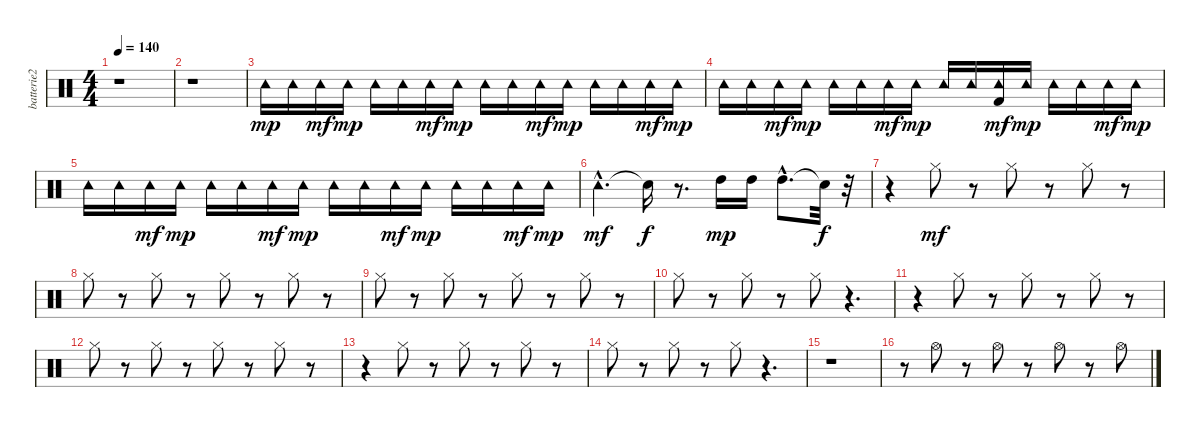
\track ("batterie2" "batterie2") {instrument percussion}
\staff {score}
\articulation defaults
\ts (4 4)
\tempo 140
\clef neutral
\ks c
r.1{dy mf} |
r.1 |
"Tambourine (hit)".16{dy mp} "Tambourine (hit)".16 "Tambourine (hit)".16{dy mf} "Tambourine (hit)".16{dy mp} "Tambourine (hit)".16 "Tambourine (hit)".16 "Tambourine (hit)".16{dy mf} "Tambourine (hit)".16{dy mp} "Tambourine (hit)".16 "Tambourine (hit)".16 "Tambourine (hit)".16{dy mf} "Tambourine (hit)".16{dy mp} "Tambourine (hit)".16 "Tambourine (hit)".16 "Tambourine (hit)".16{dy mf} "Tambourine (hit)".16{dy mp} |
"Tambourine (hit)".16 "Tambourine (hit)".16 "Tambourine (hit)".16{dy mf} "Tambourine (hit)".16{dy mp} "Tambourine (hit)".16 "Tambourine (hit)".16 "Tambourine (hit)".16{dy mf} "Tambourine (hit)".16{dy mp} "Tambourine (hit)".16 "Tambourine (hit)".16 ("Kick (hit) 2" "Tambourine (hit)").16{dy mf} "Tambourine (hit)".16{dy mp} "Tambourine (hit)".16 "Tambourine (hit)".16 "Tambourine (hit)".16{dy mf} "Tambourine (hit)".16{dy mp} |
"Tambourine (hit)".16 "Tambourine (hit)".16 "Tambourine (hit)".16{dy mf} "Tambourine (hit)".16{dy mp} "Tambourine (hit)".16 "Tambourine (hit)".16 "Tambourine (hit)".16{dy mf} "Tambourine (hit)".16{dy mp} "Tambourine (hit)".16 "Tambourine (hit)".16 "Tambourine (hit)".16{dy mf} "Tambourine (hit)".16{dy mp} "Tambourine (hit)".16 "Tambourine (hit)".16 "Tambourine (hit)".16{dy mf} "Tambourine (hit)".16{dy mp} |
"Tambourine (hit)"{hac}.4{d dy mf} "Snare (hit)"{t}.16{dy f} r.8{d} "High Tom (hit)".16{dy mp} "High Tom (hit)".16 "High Tom (hit)"{hac}.8{d} "Snare (hit)"{t}.32{dy f} r.32 |
r.4 "Hi-Hat (closed)".8{dy mf} r.8 "Hi-Hat (closed)".8 r.8 "Hi-Hat (closed)".8 r.8 |
"Hi-Hat (closed)".8 r.8 "Hi-Hat (closed)".8 r.8 "Hi-Hat (closed)".8 r.8 "Hi-Hat (closed)".8 r.8 |
"Hi-Hat (closed)".8 r.8 "Hi-Hat (closed)".8 r.8 "Hi-Hat (closed)".8 r.8 "Hi-Hat (closed)".8 r.8 |
"Hi-Hat (closed)".8 r.8 "Hi-Hat (closed)".8 r.8 "Hi-Hat (closed)".8 r.4{d} |
r.4 "Hi-Hat (closed)".8 r.8 "Hi-Hat (closed)".8 r.8 "Hi-Hat (closed)".8 r.8 |
"Hi-Hat (closed)".8 r.8 "Hi-Hat (closed)".8 r.8 "Hi-Hat (closed)".8 r.8 "Hi-Hat (closed)".8 r.8 |
r.4 "Hi-Hat (closed)".8 r.8 "Hi-Hat (closed)".8 r.8 "Hi-Hat (closed)".8 r.8 |
"Hi-Hat (closed)".8 r.8 "Hi-Hat (closed)".8 r.8 "Hi-Hat (closed)".8 r.4{d} |
r.1 |
r.8 "Hi-Hat (open)".8 r.8 "Hi-Hat (open)".8 r.8 "Hi-Hat (open)".8 r.8 "Hi-Hat (open)".8
